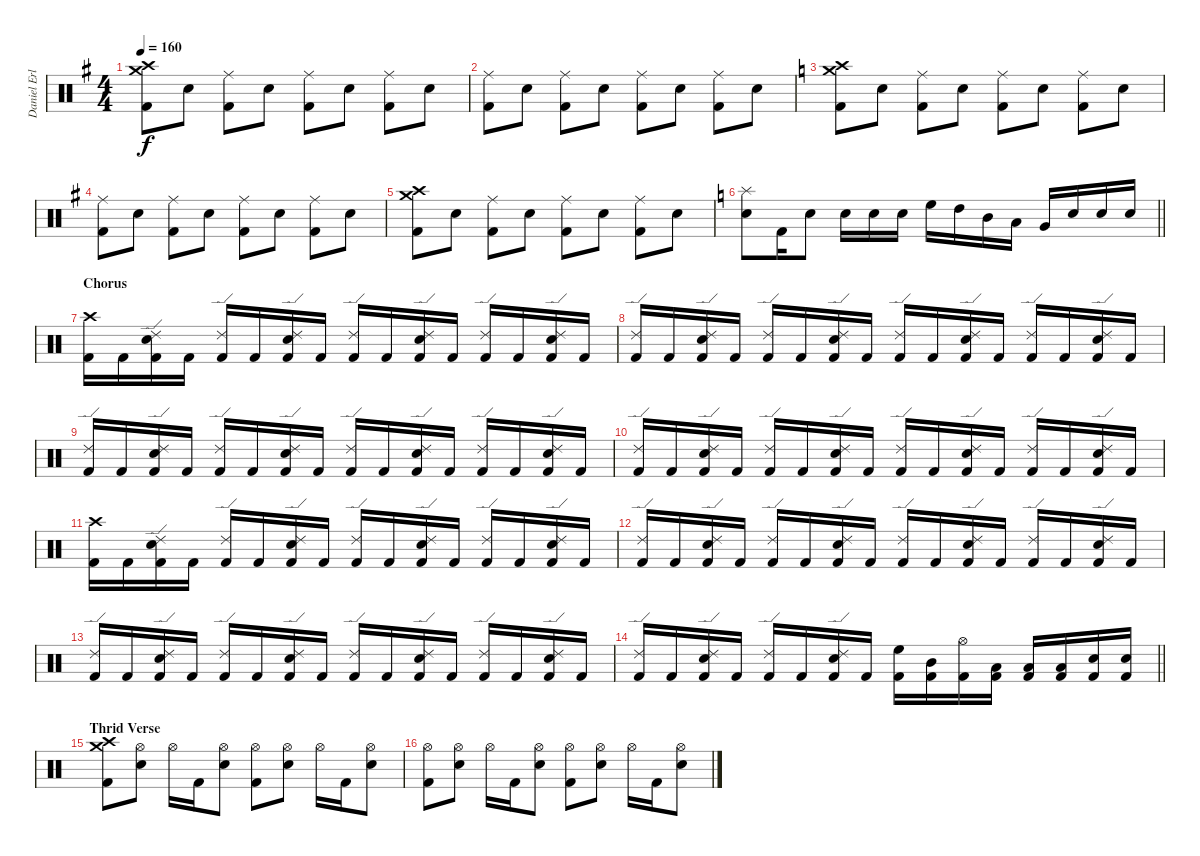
\track ("Daniel Erlandsson" "Daniel Erl") {instrument percussion}
\staff {score}
\articulation defaults
\ts (4 4)
\tempo 160
\clef neutral
\ks g
("Crash medium (hit)" "Crash high (hit)" "Kick (hit) 2").8{dy f} "Electric Snare (hit)".8 ("Ride (middle)" "Kick (hit) 2").8 "Electric Snare (hit)".8 ("Ride (middle)" "Kick (hit) 2").8 "Electric Snare (hit)".8 ("Ride (middle)" "Kick (hit) 2").8 "Electric Snare (hit)".8 |
("Ride (middle)" "Kick (hit) 2").8 "Electric Snare (hit)".8 ("Ride (middle)" "Kick (hit) 2").8 "Electric Snare (hit)".8 ("Ride (middle)" "Kick (hit) 2").8 "Electric Snare (hit)".8 ("Ride (middle)" "Kick (hit) 2").8 "Electric Snare (hit)".8 |
\ks c
("Crash medium (hit)" "Crash high (hit)" "Kick (hit) 2").8 "Electric Snare (hit)".8 ("Ride (middle)" "Kick (hit) 2").8 "Electric Snare (hit)".8 ("Ride (middle)" "Kick (hit) 2").8 "Electric Snare (hit)".8 ("Ride (middle)" "Kick (hit) 2").8 "Electric Snare (hit)".8 |
\ks g
("Ride (middle)" "Kick (hit) 2").8 "Electric Snare (hit)".8 ("Ride (middle)" "Kick (hit) 2").8 "Electric Snare (hit)".8 ("Ride (middle)" "Kick (hit) 2").8 "Electric Snare (hit)".8 ("Ride (middle)" "Kick (hit) 2").8 "Electric Snare (hit)".8 |
("Crash medium (hit)" "Crash high (hit)" "Kick (hit) 2").8 "Electric Snare (hit)".8 ("Ride (middle)" "Kick (hit) 2").8 "Electric Snare (hit)".8 ("Ride (middle)" "Kick (hit) 2").8 "Electric Snare (hit)".8 ("Ride (middle)" "Kick (hit) 2").8 "Electric Snare (hit)".8 |
\barLineRight lightlight
\ks c
("Splash (hit)" "Electric Snare (hit)").8 "Kick (hit) 2".16 "Electric Snare (hit)".8 "Electric Snare (hit)".16 "Electric Snare (hit)".16 "Electric Snare (hit)".16 "High Floor Tom (hit)".16 "High Tom (hit)".16 "Mid Tom (hit)".16 "Low Tom (hit)".16 "Very Low Tom (hit)".16 "Electric Snare (hit)".16 "Electric Snare (hit)".16 "Electric Snare (hit)".16 |
\section ("" "Chorus")
("Crash high (hit)" "Kick (hit) 2").16 "Kick (hit) 2".16 ("Ride (edge) 2" "Electric Snare (hit)" "Kick (hit) 2").16 "Kick (hit) 2".16 ("Ride (edge) 2" "Kick (hit) 2").16 "Kick (hit) 2".16 ("Ride (edge) 2" "Electric Snare (hit)" "Kick (hit) 2").16 "Kick (hit) 2".16 ("Ride (edge) 2" "Kick (hit) 2").16 "Kick (hit) 2".16 ("Ride (edge) 2" "Electric Snare (hit)" "Kick (hit) 2").16 "Kick (hit) 2".16 ("Ride (edge) 2" "Kick (hit) 2").16 "Kick (hit) 2".16 ("Ride (edge) 2" "Electric Snare (hit)" "Kick (hit) 2").16 "Kick (hit) 2".16 |
("Ride (edge) 2" "Kick (hit) 2").16 "Kick (hit) 2".16 ("Ride (edge) 2" "Electric Snare (hit)" "Kick (hit) 2").16 "Kick (hit) 2".16 ("Ride (edge) 2" "Kick (hit) 2").16 "Kick (hit) 2".16 ("Ride (edge) 2" "Electric Snare (hit)" "Kick (hit) 2").16 "Kick (hit) 2".16 ("Ride (edge) 2" "Kick (hit) 2").16 "Kick (hit) 2".16 ("Ride (edge) 2" "Electric Snare (hit)" "Kick (hit) 2").16 "Kick (hit) 2".16 ("Ride (edge) 2" "Kick (hit) 2").16 "Kick (hit) 2".16 ("Ride (edge) 2" "Electric Snare (hit)" "Kick (hit) 2").16 "Kick (hit) 2".16 |
("Ride (edge) 2" "Kick (hit) 2").16 "Kick (hit) 2".16 ("Ride (edge) 2" "Electric Snare (hit)" "Kick (hit) 2").16 "Kick (hit) 2".16 ("Ride (edge) 2" "Kick (hit) 2").16 "Kick (hit) 2".16 ("Ride (edge) 2" "Electric Snare (hit)" "Kick (hit) 2").16 "Kick (hit) 2".16 ("Ride (edge) 2" "Kick (hit) 2").16 "Kick (hit) 2".16 ("Ride (edge) 2" "Electric Snare (hit)" "Kick (hit) 2").16 "Kick (hit) 2".16 ("Ride (edge) 2" "Kick (hit) 2").16 "Kick (hit) 2".16 ("Ride (edge) 2" "Electric Snare (hit)" "Kick (hit) 2").16 "Kick (hit) 2".16 |
("Ride (edge) 2" "Kick (hit) 2").16 "Kick (hit) 2".16 ("Ride (edge) 2" "Electric Snare (hit)" "Kick (hit) 2").16 "Kick (hit) 2".16 ("Ride (edge) 2" "Kick (hit) 2").16 "Kick (hit) 2".16 ("Ride (edge) 2" "Electric Snare (hit)" "Kick (hit) 2").16 "Kick (hit) 2".16 ("Ride (edge) 2" "Kick (hit) 2").16 "Kick (hit) 2".16 ("Ride (edge) 2" "Electric Snare (hit)" "Kick (hit) 2").16 "Kick (hit) 2".16 ("Ride (edge) 2" "Kick (hit) 2").16 "Kick (hit) 2".16 ("Ride (edge) 2" "Electric Snare (hit)" "Kick (hit) 2").16 "Kick (hit) 2".16 |
("Crash high (hit)" "Kick (hit) 2").16 "Kick (hit) 2".16 ("Ride (edge) 2" "Electric Snare (hit)" "Kick (hit) 2").16 "Kick (hit) 2".16 ("Ride (edge) 2" "Kick (hit) 2").16 "Kick (hit) 2".16 ("Ride (edge) 2" "Electric Snare (hit)" "Kick (hit) 2").16 "Kick (hit) 2".16 ("Ride (edge) 2" "Kick (hit) 2").16 "Kick (hit) 2".16 ("Ride (edge) 2" "Electric Snare (hit)" "Kick (hit) 2").16 "Kick (hit) 2".16 ("Ride (edge) 2" "Kick (hit) 2").16 "Kick (hit) 2".16 ("Ride (edge) 2" "Electric Snare (hit)" "Kick (hit) 2").16 "Kick (hit) 2".16 |
("Ride (edge) 2" "Kick (hit) 2").16 "Kick (hit) 2".16 ("Ride (edge) 2" "Electric Snare (hit)" "Kick (hit) 2").16 "Kick (hit) 2".16 ("Ride (edge) 2" "Kick (hit) 2").16 "Kick (hit) 2".16 ("Ride (edge) 2" "Electric Snare (hit)" "Kick (hit) 2").16 "Kick (hit) 2".16 ("Ride (edge) 2" "Kick (hit) 2").16 "Kick (hit) 2".16 ("Ride (edge) 2" "Electric Snare (hit)" "Kick (hit) 2").16 "Kick (hit) 2".16 ("Ride (edge) 2" "Kick (hit) 2").16 "Kick (hit) 2".16 ("Ride (edge) 2" "Electric Snare (hit)" "Kick (hit) 2").16 "Kick (hit) 2".16 |
("Ride (edge) 2" "Kick (hit) 2").16 "Kick (hit) 2".16 ("Ride (edge) 2" "Electric Snare (hit)" "Kick (hit) 2").16 "Kick (hit) 2".16 ("Ride (edge) 2" "Kick (hit) 2").16 "Kick (hit) 2".16 ("Ride (edge) 2" "Electric Snare (hit)" "Kick (hit) 2").16 "Kick (hit) 2".16 ("Ride (edge) 2" "Kick (hit) 2").16 "Kick (hit) 2".16 ("Ride (edge) 2" "Electric Snare (hit)" "Kick (hit) 2").16 "Kick (hit) 2".16 ("Ride (edge) 2" "Kick (hit) 2").16 "Kick (hit) 2".16 ("Ride (edge) 2" "Electric Snare (hit)" "Kick (hit) 2").16 "Kick (hit) 2".16 |
\barLineRight lightlight
("Ride (edge) 2" "Kick (hit) 2").16 "Kick (hit) 2".16 ("Ride (edge) 2" "Electric Snare (hit)" "Kick (hit) 2").16 "Kick (hit) 2".16 ("Ride (edge) 2" "Kick (hit) 2").16 "Kick (hit) 2".16 ("Ride (edge) 2" "Electric Snare (hit)" "Kick (hit) 2").16 "Kick (hit) 2".16 ("High Floor Tom (hit)" "Kick (hit) 2").16 ("Mid Tom (hit)" "Kick (hit) 2").16 ("Hi-Hat (open)" "Kick (hit) 2").16 ("Low Floor Tom (hit)" "Kick (hit) 2").16 ("Low Tom (hit)" "Kick (hit) 2").16 ("Low Floor Tom (hit)" "Kick (hit) 2").16 ("Electric Snare (hit)" "Kick (hit) 2").16 ("Electric Snare (hit)" "Kick (hit) 2").16 |
\section ("" "Thrid Verse")
("Crash medium (hit)" "Crash high (hit)" "Kick (hit) 2").8 ("Hi-Hat (open)" "Electric Snare (hit)").8 "Hi-Hat (open)".16 "Kick (hit) 2".16 ("Hi-Hat (open)" "Electric Snare (hit)").8 ("Hi-Hat (open)" "Kick (hit) 2").8 ("Hi-Hat (open)" "Electric Snare (hit)").8 "Hi-Hat (open)".16 "Kick (hit) 2".16 ("Hi-Hat (open)" "Electric Snare (hit)").8 |
("Hi-Hat (open)" "Kick (hit) 2").8 ("Hi-Hat (open)" "Electric Snare (hit)").8 "Hi-Hat (open)".16 "Kick (hit) 2".16 ("Hi-Hat (open)" "Electric Snare (hit)").8 ("Hi-Hat (open)" "Kick (hit) 2").8 ("Hi-Hat (open)" "Electric Snare (hit)").8 "Hi-Hat (open)".16 "Kick (hit) 2".16 ("Hi-Hat (open)" "Electric Snare (hit)").8
